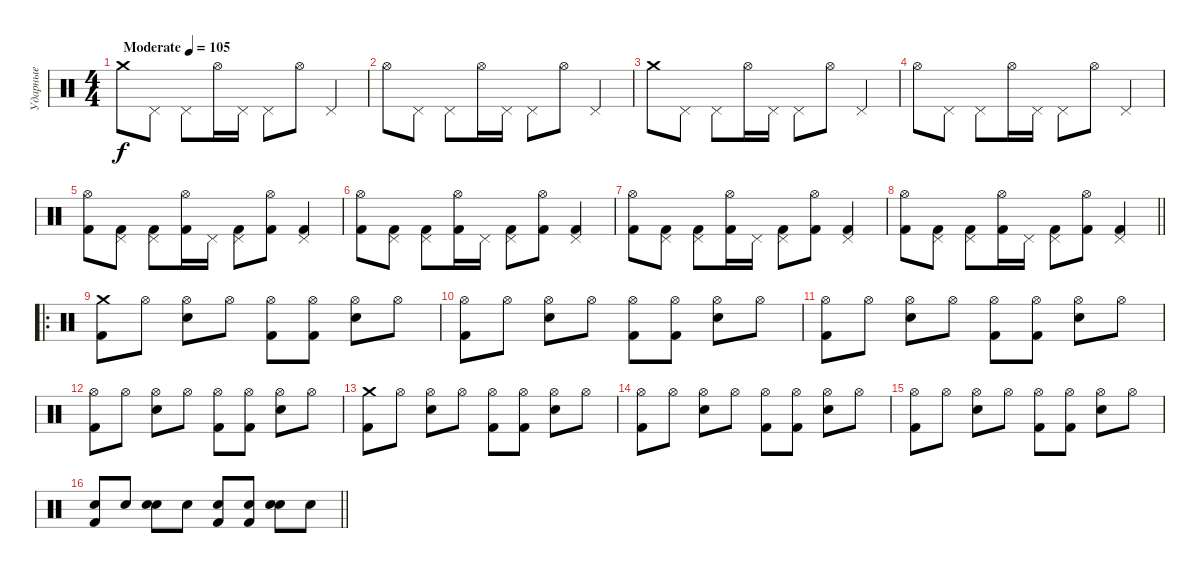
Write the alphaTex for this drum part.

\track ("Ударные" "Ударные") {instrument percussion}
\staff {score}
\articulation defaults
\ts (4 4)
\tempo (105 "Moderate")
\clef neutral
\ks c "Crash medium (hit)".8{dy f} "Pedal Hi-Hat (hit)".8 "Pedal Hi-Hat (hit)".8 "Hi-Hat (open)".16 "Pedal Hi-Hat (hit)".16 "Pedal Hi-Hat (hit)".8 "Hi-Hat (open)".8 "Pedal Hi-Hat (hit)".4
|
"Hi-Hat (open)".8 "Pedal Hi-Hat (hit)".8 "Pedal Hi-Hat (hit)".8 "Hi-Hat (open)".16 "Pedal Hi-Hat (hit)".16 "Pedal Hi-Hat (hit)".8 "Hi-Hat (open)".8 "Pedal Hi-Hat (hit)".4 |
"Crash medium (hit)".8 "Pedal Hi-Hat (hit)".8 "Pedal Hi-Hat (hit)".8 "Hi-Hat (open)".16 "Pedal Hi-Hat (hit)".16 "Pedal Hi-Hat (hit)".8 "Hi-Hat (open)".8 "Pedal Hi-Hat (hit)".4 |
"Hi-Hat (open)".8 "Pedal Hi-Hat (hit)".8 "Pedal Hi-Hat (hit)".8 "Hi-Hat (open)".16 "Pedal Hi-Hat (hit)".16 "Pedal Hi-Hat (hit)".8 "Hi-Hat (open)".8 "Pedal Hi-Hat (hit)".4 |
("Hi-Hat (open)" "Kick (hit) 2").8 ("Pedal Hi-Hat (hit)" "Kick (hit) 2").8 ("Pedal Hi-Hat (hit)" "Kick (hit) 2").8 ("Hi-Hat (open)" "Kick (hit) 2").16 "Pedal Hi-Hat (hit)".16 ("Pedal Hi-Hat (hit)" "Kick (hit) 2").8 ("Hi-Hat (open)" "Kick (hit) 2").8 ("Pedal Hi-Hat (hit)" "Kick (hit) 2").4 |
("Hi-Hat (open)" "Kick (hit) 2").8 ("Pedal Hi-Hat (hit)" "Kick (hit) 2").8 ("Pedal Hi-Hat (hit)" "Kick (hit) 2").8 ("Hi-Hat (open)" "Kick (hit) 2").16 "Pedal Hi-Hat (hit)".16 ("Pedal Hi-Hat (hit)" "Kick (hit) 2").8 ("Hi-Hat (open)" "Kick (hit) 2").8 ("Pedal Hi-Hat (hit)" "Kick (hit) 2").4 |
("Hi-Hat (open)" "Kick (hit) 2").8 ("Pedal Hi-Hat (hit)" "Kick (hit) 2").8 ("Pedal Hi-Hat (hit)" "Kick (hit) 2").8 ("Hi-Hat (open)" "Kick (hit) 2").16 "Pedal Hi-Hat (hit)".16 ("Pedal Hi-Hat (hit)" "Kick (hit) 2").8 ("Hi-Hat (open)" "Kick (hit) 2").8 ("Pedal Hi-Hat (hit)" "Kick (hit) 2").4 |
\barLineRight lightlight
("Hi-Hat (open)" "Kick (hit) 2").8 ("Pedal Hi-Hat (hit)" "Kick (hit) 2").8 ("Pedal Hi-Hat (hit)" "Kick (hit) 2").8 ("Hi-Hat (open)" "Kick (hit) 2").16 "Pedal Hi-Hat (hit)".16 ("Pedal Hi-Hat (hit)" "Kick (hit) 2").8 ("Hi-Hat (open)" "Kick (hit) 2").8 ("Pedal Hi-Hat (hit)" "Kick (hit) 2").4 |
\ro
\section ("" "")
("Crash medium (hit)" "Kick (hit) 2").8 "Hi-Hat (open)".8 ("Hi-Hat (open)" "Snare (hit) 2").8 "Hi-Hat (open)".8 ("Hi-Hat (open)" "Kick (hit) 2").8 ("Hi-Hat (open)" "Kick (hit) 2").8 ("Hi-Hat (open)" "Snare (hit) 2").8 "Hi-Hat (open)".8 |
("Hi-Hat (open)" "Kick (hit) 2").8 "Hi-Hat (open)".8 ("Hi-Hat (open)" "Snare (hit) 2").8 "Hi-Hat (open)".8 ("Hi-Hat (open)" "Kick (hit) 2").8 ("Hi-Hat (open)" "Kick (hit) 2").8 ("Hi-Hat (open)" "Snare (hit) 2").8 "Hi-Hat (open)".8 |
("Hi-Hat (open)" "Kick (hit) 2").8 "Hi-Hat (open)".8 ("Hi-Hat (open)" "Snare (hit) 2").8 "Hi-Hat (open)".8 ("Hi-Hat (open)" "Kick (hit) 2").8 ("Hi-Hat (open)" "Kick (hit) 2").8 ("Hi-Hat (open)" "Snare (hit) 2").8 "Hi-Hat (open)".8 |
("Hi-Hat (open)" "Kick (hit) 2").8 "Hi-Hat (open)".8 ("Hi-Hat (open)" "Snare (hit) 2").8 "Hi-Hat (open)".8 ("Hi-Hat (open)" "Kick (hit) 2").8 ("Hi-Hat (open)" "Kick (hit) 2").8 ("Hi-Hat (open)" "Snare (hit) 2").8 "Hi-Hat (open)".8 |
("Crash medium (hit)" "Kick (hit) 2").8 "Hi-Hat (open)".8 ("Hi-Hat (open)" "Snare (hit) 2").8 "Hi-Hat (open)".8 ("Hi-Hat (open)" "Kick (hit) 2").8 ("Hi-Hat (open)" "Kick (hit) 2").8 ("Hi-Hat (open)" "Snare (hit) 2").8 "Hi-Hat (open)".8 |
("Hi-Hat (open)" "Kick (hit) 2").8 "Hi-Hat (open)".8 ("Hi-Hat (open)" "Snare (hit) 2").8 "Hi-Hat (open)".8 ("Hi-Hat (open)" "Kick (hit) 2").8 ("Hi-Hat (open)" "Kick (hit) 2").8 ("Hi-Hat (open)" "Snare (hit) 2").8 "Hi-Hat (open)".8 |
("Hi-Hat (open)" "Kick (hit) 2").8 "Hi-Hat (open)".8 ("Hi-Hat (open)" "Snare (hit) 2").8 "Hi-Hat (open)".8 ("Hi-Hat (open)" "Kick (hit) 2").8 ("Hi-Hat (open)" "Kick (hit) 2").8 ("Hi-Hat (open)" "Snare (hit) 2").8 "Hi-Hat (open)".8 |
\barLineRight lightlight
("Snare (hit) 2" "Kick (hit) 2").8 "Snare (hit) 2".8 ("Snare (hit) 2" "Snare (hit) 2").8 "Snare (hit) 2".8 ("Snare (hit) 2" "Kick (hit) 2").8 ("Snare (hit) 2" "Kick (hit) 2").8 ("Snare (hit) 2" "Snare (hit) 2").8 "Snare (hit) 2".8
